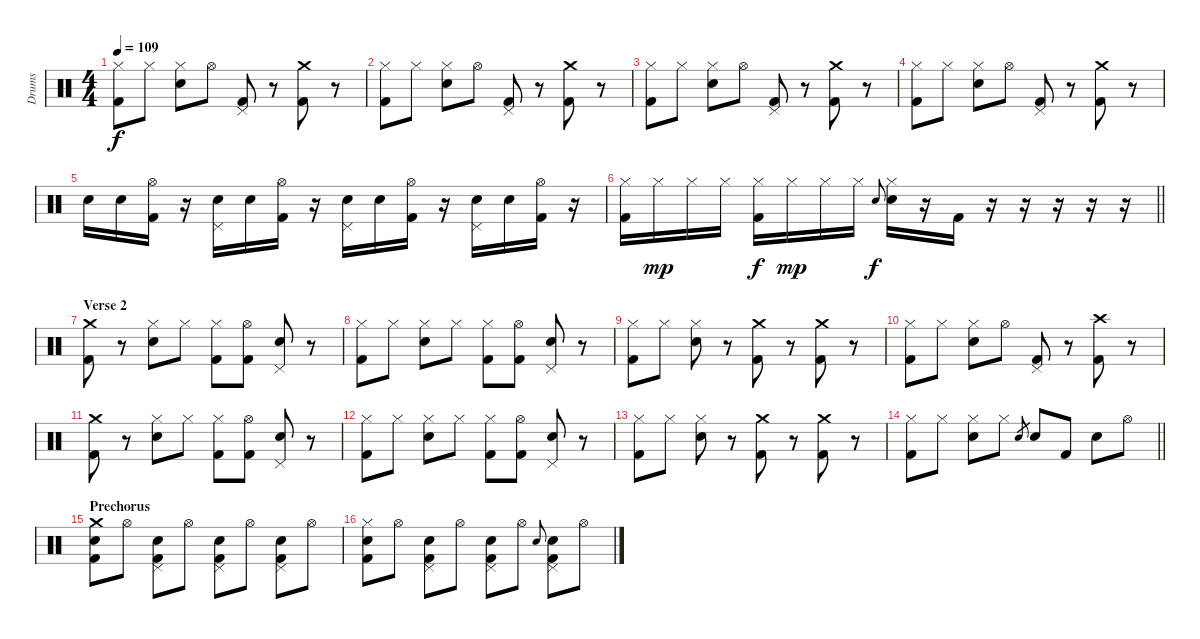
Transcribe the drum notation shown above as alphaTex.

\track ("Drums" "Drums") {instrument percussion}
\staff {score}
\articulation defaults
\ts (4 4)
\tempo 109
\clef neutral
\ks c
("Hi-Hat (closed)" "Kick (hit) 2").8{dy f} "Hi-Hat (closed)".8 ("Hi-Hat (closed)" "Snare (hit) 2").8 "Hi-Hat (open)".8 ("Pedal Hi-Hat (hit)" "Kick (hit) 2").8 r.8 ("Crash medium (hit)" "Kick (hit) 2").8 r.8 |
("Hi-Hat (closed)" "Kick (hit) 2").8 "Hi-Hat (closed)".8 ("Hi-Hat (closed)" "Snare (hit) 2").8 "Hi-Hat (open)".8 ("Pedal Hi-Hat (hit)" "Kick (hit) 2").8 r.8 ("Crash medium (hit)" "Kick (hit) 2").8 r.8 |
("Hi-Hat (closed)" "Kick (hit) 2").8 "Hi-Hat (closed)".8 ("Hi-Hat (closed)" "Snare (hit) 2").8 "Hi-Hat (open)".8 ("Pedal Hi-Hat (hit)" "Kick (hit) 2").8 r.8 ("Crash medium (hit)" "Kick (hit) 2").8 r.8 |
("Hi-Hat (closed)" "Kick (hit) 2").8 "Hi-Hat (closed)".8 ("Hi-Hat (closed)" "Snare (hit) 2").8 "Hi-Hat (open)".8 ("Pedal Hi-Hat (hit)" "Kick (hit) 2").8 r.8 ("Crash medium (hit)" "Kick (hit) 2").8 r.8 |
"Snare (hit) 2".16 "Snare (hit) 2".16 ("Hi-Hat (open)" "Kick (hit) 2").16 r.16 ("Pedal Hi-Hat (hit)" "Snare (hit) 2").16 "Snare (hit) 2".16 ("Hi-Hat (open)" "Kick (hit) 2").16 r.16 ("Pedal Hi-Hat (hit)" "Snare (hit) 2").16 "Snare (hit) 2".16 ("Hi-Hat (open)" "Kick (hit) 2").16 r.16 ("Pedal Hi-Hat (hit)" "Snare (hit) 2").16 "Snare (hit) 2".16 ("Hi-Hat (open)" "Kick (hit) 2").16 r.16 |
\barLineRight lightlight
("Hi-Hat (closed)" "Kick (hit) 2").16 "Hi-Hat (closed)".16{dy mp} "Hi-Hat (closed)".16 "Hi-Hat (closed)".16 ("Hi-Hat (closed)" "Kick (hit) 2").16{dy f} "Hi-Hat (closed)".16{dy mp} "Hi-Hat (closed)".16 "Hi-Hat (closed)".16 "Snare (hit) 2".8{gr onbeat dy f} ("Hi-Hat (closed)" "Snare (hit) 2").16 r.16 "Kick (hit) 2".16 r.16 r.16 r.16 r.16 r.16 |
\section ("" "Verse 2")
("Crash medium (hit)" "Kick (hit) 2").8 r.8 ("Hi-Hat (closed)" "Snare (hit) 2").8 "Hi-Hat (closed)".8 ("Hi-Hat (closed)" "Kick (hit) 2").8 ("Hi-Hat (open)" "Kick (hit) 2").8 ("Pedal Hi-Hat (hit)" "Snare (hit) 2").8 r.8 |
("Hi-Hat (closed)" "Kick (hit) 2").8 "Hi-Hat (closed)".8 ("Hi-Hat (closed)" "Snare (hit) 2").8 "Hi-Hat (closed)".8 ("Hi-Hat (closed)" "Kick (hit) 2").8 ("Hi-Hat (open)" "Kick (hit) 2").8 ("Pedal Hi-Hat (hit)" "Snare (hit) 2").8 r.8 |
("Hi-Hat (closed)" "Kick (hit) 2").8 "Hi-Hat (closed)".8 ("Hi-Hat (closed)" "Snare (hit) 2").8 r.8 ("Crash medium (hit)" "Kick (hit) 2").8 r.8 ("Crash medium (hit)" "Kick (hit) 2").8 r.8 |
("Hi-Hat (closed)" "Kick (hit) 2").8 "Hi-Hat (closed)".8 ("Hi-Hat (closed)" "Snare (hit) 2").8 "Hi-Hat (open)".8 ("Pedal Hi-Hat (hit)" "Kick (hit) 2").8 r.8 ("Crash high (hit)" "Kick (hit) 2").8 r.8 |
("Crash medium (hit)" "Kick (hit) 2").8 r.8 ("Hi-Hat (closed)" "Snare (hit) 2").8 "Hi-Hat (closed)".8 ("Hi-Hat (closed)" "Kick (hit) 2").8 ("Hi-Hat (open)" "Kick (hit) 2").8 ("Pedal Hi-Hat (hit)" "Snare (hit) 2").8 r.8 |
("Hi-Hat (closed)" "Kick (hit) 2").8 "Hi-Hat (closed)".8 ("Hi-Hat (closed)" "Snare (hit) 2").8 "Hi-Hat (closed)".8 ("Hi-Hat (closed)" "Kick (hit) 2").8 ("Hi-Hat (open)" "Kick (hit) 2").8 ("Pedal Hi-Hat (hit)" "Snare (hit) 2").8 r.8 |
("Hi-Hat (closed)" "Kick (hit) 2").8 "Hi-Hat (closed)".8 ("Hi-Hat (closed)" "Snare (hit) 2").8 r.8 ("Crash medium (hit)" "Kick (hit) 2").8 r.8 ("Crash medium (hit)" "Kick (hit) 2").8 r.8 |
\barLineRight lightlight
("Hi-Hat (closed)" "Kick (hit) 2").8 "Hi-Hat (closed)".8 ("Hi-Hat (closed)" "Snare (hit) 2").8 "Hi-Hat (closed)".8 "Snare (hit) 2".8{gr} "Snare (hit) 2".8 "Kick (hit) 2".8 "Snare (hit) 2".8 "Hi-Hat (open)".8 |
\section ("" "Prechorus")
("Crash medium (hit)" "Snare (hit) 2" "Kick (hit) 2").8 "Hi-Hat (open)".8 ("Pedal Hi-Hat (hit)" "Snare (hit) 2" "Kick (hit) 2").8 "Hi-Hat (open)".8 ("Pedal Hi-Hat (hit)" "Snare (hit) 2" "Kick (hit) 2").8 "Hi-Hat (open)".8 ("Pedal Hi-Hat (hit)" "Snare (hit) 2" "Kick (hit) 2").8 "Hi-Hat (open)".8 |
("Hi-Hat (closed)" "Snare (hit) 2" "Kick (hit) 2").8 "Hi-Hat (open)".8 ("Pedal Hi-Hat (hit)" "Snare (hit) 2" "Kick (hit) 2").8 "Hi-Hat (open)".8 ("Pedal Hi-Hat (hit)" "Snare (hit) 2" "Kick (hit) 2").8 "Hi-Hat (open)".8 "Snare (hit) 2".8{gr onbeat} ("Pedal Hi-Hat (hit)" "Snare (hit) 2" "Kick (hit) 2").8 "Hi-Hat (open)".8
